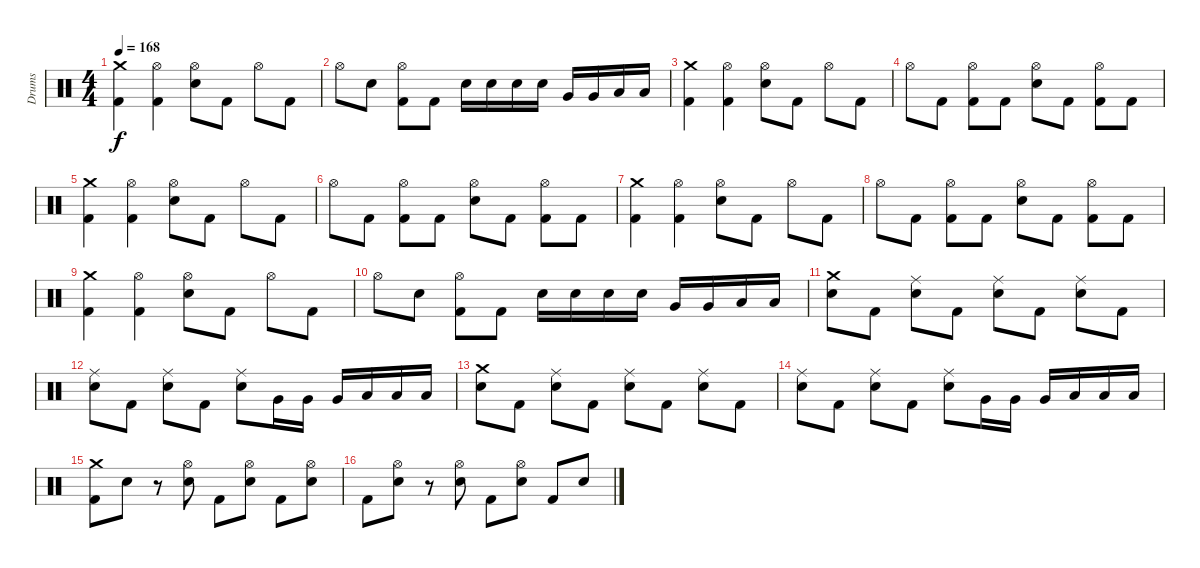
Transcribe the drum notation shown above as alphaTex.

\track ("Drums" "Drums") {instrument percussion}
\staff
\articulation defaults
\ts (4 4)
\tempo 168
\clef neutral
\ks c
("Crash medium (hit)" "Kick (hit) 2").4{dy f} ("Hi-Hat (open)" "Kick (hit) 2").4 ("Hi-Hat (open)" "Electric Snare (hit)").8 "Kick (hit) 2".8 "Hi-Hat (open)".8 "Kick (hit) 2".8 |
"Hi-Hat (open)".8 "Electric Snare (hit)".8 ("Hi-Hat (open)" "Kick (hit) 2").8 "Kick (hit) 2".8 "Electric Snare (hit)".16 "Electric Snare (hit)".16 "Electric Snare (hit)".16 "Electric Snare (hit)".16 "Very Low Tom (hit)".16 "Very Low Tom (hit)".16 "Low Floor Tom (hit)".16 "Low Floor Tom (hit)".16 |
("Crash medium (hit)" "Kick (hit) 2").4 ("Hi-Hat (open)" "Kick (hit) 2").4 ("Hi-Hat (open)" "Electric Snare (hit)").8 "Kick (hit) 2".8 "Hi-Hat (open)".8 "Kick (hit) 2".8 |
"Hi-Hat (open)".8 "Kick (hit) 2".8 ("Hi-Hat (open)" "Kick (hit) 2").8 "Kick (hit) 2".8 ("Hi-Hat (open)" "Electric Snare (hit)").8 "Kick (hit) 2".8 ("Hi-Hat (open)" "Kick (hit) 2").8 "Kick (hit) 2".8 |
("Crash medium (hit)" "Kick (hit) 2").4 ("Hi-Hat (open)" "Kick (hit) 2").4 ("Hi-Hat (open)" "Electric Snare (hit)").8 "Kick (hit) 2".8 "Hi-Hat (open)".8 "Kick (hit) 2".8 |
"Hi-Hat (open)".8 "Kick (hit) 2".8 ("Hi-Hat (open)" "Kick (hit) 2").8 "Kick (hit) 2".8 ("Hi-Hat (open)" "Electric Snare (hit)").8 "Kick (hit) 2".8 ("Hi-Hat (open)" "Kick (hit) 2").8 "Kick (hit) 2".8 |
("Crash medium (hit)" "Kick (hit) 2").4 ("Hi-Hat (open)" "Kick (hit) 2").4 ("Hi-Hat (open)" "Electric Snare (hit)").8 "Kick (hit) 2".8 "Hi-Hat (open)".8 "Kick (hit) 2".8 |
"Hi-Hat (open)".8 "Kick (hit) 2".8 ("Hi-Hat (open)" "Kick (hit) 2").8 "Kick (hit) 2".8 ("Hi-Hat (open)" "Electric Snare (hit)").8 "Kick (hit) 2".8 ("Hi-Hat (open)" "Kick (hit) 2").8 "Kick (hit) 2".8 |
("Crash medium (hit)" "Kick (hit) 2").4 ("Hi-Hat (open)" "Kick (hit) 2").4 ("Hi-Hat (open)" "Electric Snare (hit)").8 "Kick (hit) 2".8 "Hi-Hat (open)".8 "Kick (hit) 2".8 |
"Hi-Hat (open)".8 "Electric Snare (hit)".8 ("Hi-Hat (open)" "Kick (hit) 2").8 "Kick (hit) 2".8 "Electric Snare (hit)".16 "Electric Snare (hit)".16 "Electric Snare (hit)".16 "Electric Snare (hit)".16 "Very Low Tom (hit)".16 "Very Low Tom (hit)".16 "Low Floor Tom (hit)".16 "Low Floor Tom (hit)".16 |
("Crash medium (hit)" "Electric Snare (hit)").8 "Kick (hit) 2".8 ("Ride (middle)" "Electric Snare (hit)").8 "Kick (hit) 2".8 ("Ride (middle)" "Electric Snare (hit)").8 "Kick (hit) 2".8 ("Ride (middle)" "Electric Snare (hit)").8 "Kick (hit) 2".8 |
("Ride (middle)" "Electric Snare (hit)").8 "Kick (hit) 2".8 ("Ride (middle)" "Electric Snare (hit)").8 "Kick (hit) 2".8 ("Ride (middle)" "Electric Snare (hit)").8 "Very Low Tom (hit)".16 "Very Low Tom (hit)".16 "Very Low Tom (hit)".16 "Low Floor Tom (hit)".16 "Low Floor Tom (hit)".16 "Low Floor Tom (hit)".16 |
("Crash medium (hit)" "Electric Snare (hit)").8 "Kick (hit) 2".8 ("Ride (middle)" "Electric Snare (hit)").8 "Kick (hit) 2".8 ("Ride (middle)" "Electric Snare (hit)").8 "Kick (hit) 2".8 ("Ride (middle)" "Electric Snare (hit)").8 "Kick (hit) 2".8 |
("Ride (middle)" "Electric Snare (hit)").8 "Kick (hit) 2".8 ("Ride (middle)" "Electric Snare (hit)").8 "Kick (hit) 2".8 ("Ride (middle)" "Electric Snare (hit)").8 "Very Low Tom (hit)".16 "Very Low Tom (hit)".16 "Very Low Tom (hit)".16 "Low Floor Tom (hit)".16 "Low Floor Tom (hit)".16 "Low Floor Tom (hit)".16 |
("Crash medium (hit)" "Kick (hit) 2").8 "Electric Snare (hit)".8 r.8 ("Hi-Hat (open)" "Electric Snare (hit)").8 "Kick (hit) 2".8 ("Hi-Hat (open)" "Electric Snare (hit)").8 "Kick (hit) 2".8 ("Hi-Hat (open)" "Electric Snare (hit)").8 |
"Kick (hit) 2".8 ("Hi-Hat (open)" "Electric Snare (hit)").8 r.8 ("Hi-Hat (open)" "Electric Snare (hit)").8 "Kick (hit) 2".8 ("Hi-Hat (open)" "Electric Snare (hit)").8 "Kick (hit) 2".8 "Electric Snare (hit)".8
